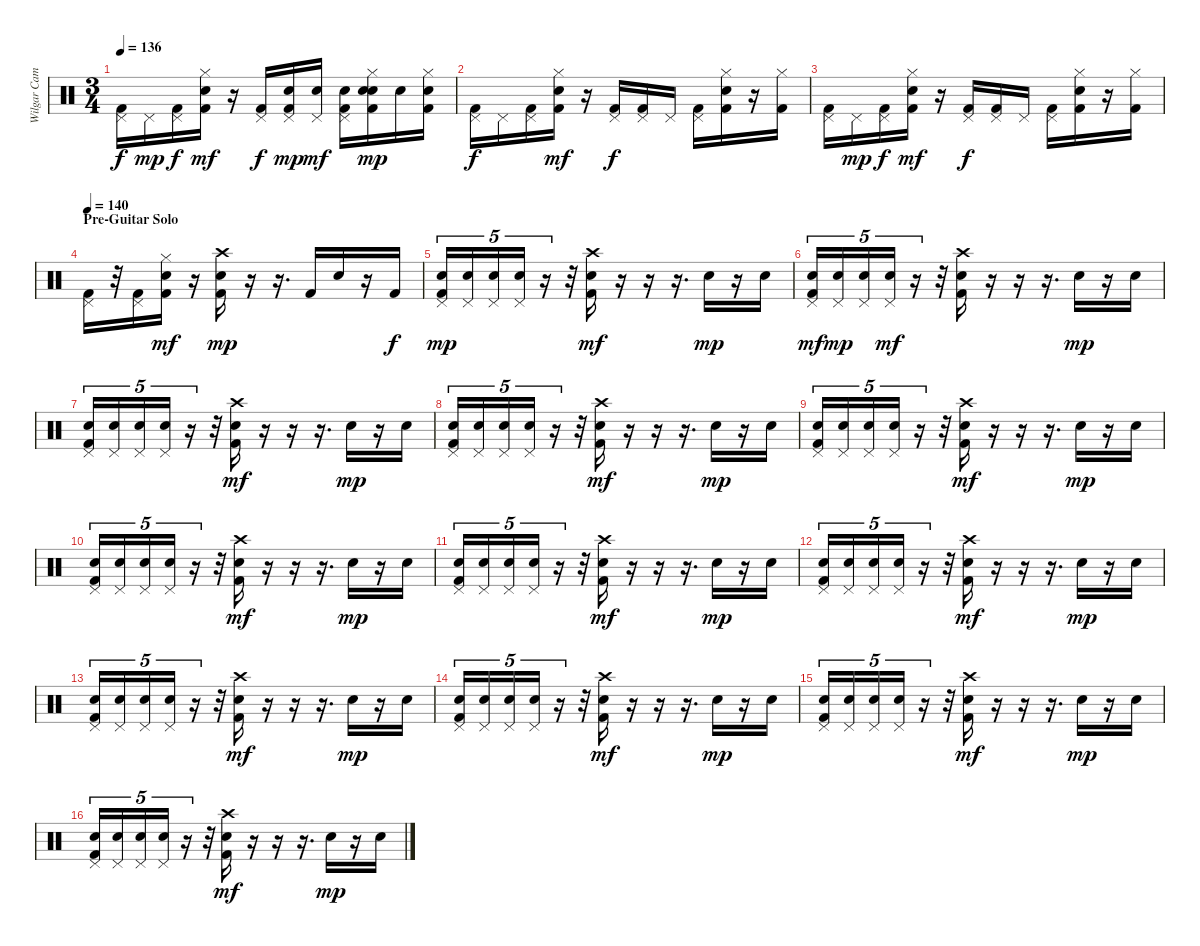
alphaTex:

\track ("Wilgar Campbell" "Wilgar Cam") {instrument percussion}
\staff {score}
\articulation defaults
\ts (3 4)
\tempo 136
\clef neutral
\ks c
("Pedal Hi-Hat (hit)" "Kick (hit) 2").16{dy f} "Pedal Hi-Hat (hit)".16{dy mp} ("Pedal Hi-Hat (hit)" "Kick (hit) 2").16{dy f} ("Snare (hit) 2" "Hi-Hat (closed)" "Kick (hit) 2").16{dy mf} r.16 ("Pedal Hi-Hat (hit)" "Kick (hit) 2").16{dy f} ("Pedal Hi-Hat (hit)" "Snare (hit) 2" "Kick (hit) 2").16{dy mp} ("Pedal Hi-Hat (hit)" "Snare (hit) 2").16{dy mf} ("Pedal Hi-Hat (hit)" "Snare (hit) 2" "Kick (hit) 2").16 ("Snare (hit) 2" "Hi-Hat (closed)" "Snare (hit) 2" "Kick (hit) 2").16{dy mp} "Snare (hit) 2".16 ("Hi-Hat (closed)" "Snare (hit) 2" "Kick (hit) 2").16 |
("Pedal Hi-Hat (hit)" "Kick (hit) 2").16{dy f} "Pedal Hi-Hat (hit)".16 ("Pedal Hi-Hat (hit)" "Kick (hit) 2").16 ("Snare (hit) 2" "Hi-Hat (closed)" "Kick (hit) 2").16{dy mf} r.16 ("Pedal Hi-Hat (hit)" "Kick (hit) 2").16{dy f} ("Pedal Hi-Hat (hit)" "Kick (hit) 2").16 "Pedal Hi-Hat (hit)".16 ("Pedal Hi-Hat (hit)" "Kick (hit) 2").16 ("Snare (hit) 2" "Hi-Hat (closed)" "Kick (hit) 2").16 r.16 ("Hi-Hat (closed)" "Kick (hit) 2").16 |
("Pedal Hi-Hat (hit)" "Kick (hit) 2").16 "Pedal Hi-Hat (hit)".16{dy mp} ("Pedal Hi-Hat (hit)" "Kick (hit) 2").16{dy f} ("Snare (hit) 2" "Hi-Hat (closed)" "Kick (hit) 2").16{dy mf} r.16 ("Pedal Hi-Hat (hit)" "Kick (hit) 2").16{dy f} ("Pedal Hi-Hat (hit)" "Kick (hit) 2").16 "Pedal Hi-Hat (hit)".16 ("Pedal Hi-Hat (hit)" "Kick (hit) 2").16 ("Snare (hit) 2" "Hi-Hat (closed)" "Kick (hit) 2").16 r.16 ("Hi-Hat (closed)" "Kick (hit) 2").16 |
\section ("" "Pre-Guitar Solo")
\tempo 140
("Pedal Hi-Hat (hit)" "Kick (hit) 2").16 r.32 ("Pedal Hi-Hat (hit)" "Kick (hit) 2").16 ("Snare (hit) 2" "Hi-Hat (closed)" "Kick (hit) 2").16{dy mf} r.16 ("Crash high (hit)" "Snare (hit) 2" "Kick (hit) 2").16{dy mp} r.16 r.16{d} "Kick (hit) 2".16 "Electric Snare (hit)".16 r.16 "Kick (hit) 2".16{dy f} |
("Snare (hit) 2" "Pedal Hi-Hat (hit)" "Kick (hit) 2").16{tu (5 4) dy mp} ("Snare (hit) 2" "Pedal Hi-Hat (hit)").16{tu (5 4)} ("Snare (hit) 2" "Pedal Hi-Hat (hit)").16{tu (5 4)} ("Snare (hit) 2" "Pedal Hi-Hat (hit)").16{tu (5 4)} r.16{tu (5 4)} r.32 ("Crash high (hit)" "Snare (hit) 2" "Kick (hit) 2").16{dy mf} r.16 r.16 r.16{d} "Electric Snare (hit)".16{dy mp} r.16 "Electric Snare (hit)".16 |
("Snare (hit) 2" "Pedal Hi-Hat (hit)" "Kick (hit) 2").16{tu (5 4) dy mf} ("Snare (hit) 2" "Pedal Hi-Hat (hit)").16{tu (5 4) dy mp} ("Snare (hit) 2" "Pedal Hi-Hat (hit)").16{tu (5 4)} ("Snare (hit) 2" "Pedal Hi-Hat (hit)").16{tu (5 4) dy mf} r.16{tu (5 4)} r.32 ("Crash high (hit)" "Snare (hit) 2" "Kick (hit) 2").16 r.16 r.16 r.16{d} "Electric Snare (hit)".16{dy mp} r.16 "Electric Snare (hit)".16 |
("Snare (hit) 2" "Pedal Hi-Hat (hit)" "Kick (hit) 2").16{tu (5 4)} ("Snare (hit) 2" "Pedal Hi-Hat (hit)").16{tu (5 4)} ("Snare (hit) 2" "Pedal Hi-Hat (hit)").16{tu (5 4)} ("Snare (hit) 2" "Pedal Hi-Hat (hit)").16{tu (5 4)} r.16{tu (5 4)} r.32 ("Crash high (hit)" "Snare (hit) 2" "Kick (hit) 2").16{dy mf} r.16 r.16 r.16{d} "Electric Snare (hit)".16{dy mp} r.16 "Electric Snare (hit)".16 |
("Snare (hit) 2" "Pedal Hi-Hat (hit)" "Kick (hit) 2").16{tu (5 4)} ("Snare (hit) 2" "Pedal Hi-Hat (hit)").16{tu (5 4)} ("Snare (hit) 2" "Pedal Hi-Hat (hit)").16{tu (5 4)} ("Snare (hit) 2" "Pedal Hi-Hat (hit)").16{tu (5 4)} r.16{tu (5 4)} r.32 ("Crash high (hit)" "Snare (hit) 2" "Kick (hit) 2").16{dy mf} r.16 r.16 r.16{d} "Electric Snare (hit)".16{dy mp} r.16 "Electric Snare (hit)".16 |
("Snare (hit) 2" "Pedal Hi-Hat (hit)" "Kick (hit) 2").16{tu (5 4)} ("Snare (hit) 2" "Pedal Hi-Hat (hit)").16{tu (5 4)} ("Snare (hit) 2" "Pedal Hi-Hat (hit)").16{tu (5 4)} ("Snare (hit) 2" "Pedal Hi-Hat (hit)").16{tu (5 4)} r.16{tu (5 4)} r.32 ("Crash high (hit)" "Snare (hit) 2" "Kick (hit) 2").16{dy mf} r.16 r.16 r.16{d} "Electric Snare (hit)".16{dy mp} r.16 "Electric Snare (hit)".16 |
("Snare (hit) 2" "Pedal Hi-Hat (hit)" "Kick (hit) 2").16{tu (5 4)} ("Snare (hit) 2" "Pedal Hi-Hat (hit)").16{tu (5 4)} ("Snare (hit) 2" "Pedal Hi-Hat (hit)").16{tu (5 4)} ("Snare (hit) 2" "Pedal Hi-Hat (hit)").16{tu (5 4)} r.16{tu (5 4)} r.32 ("Crash high (hit)" "Snare (hit) 2" "Kick (hit) 2").16{dy mf} r.16 r.16 r.16{d} "Electric Snare (hit)".16{dy mp} r.16 "Electric Snare (hit)".16 |
("Snare (hit) 2" "Pedal Hi-Hat (hit)" "Kick (hit) 2").16{tu (5 4)} ("Snare (hit) 2" "Pedal Hi-Hat (hit)").16{tu (5 4)} ("Snare (hit) 2" "Pedal Hi-Hat (hit)").16{tu (5 4)} ("Snare (hit) 2" "Pedal Hi-Hat (hit)").16{tu (5 4)} r.16{tu (5 4)} r.32 ("Crash high (hit)" "Snare (hit) 2" "Kick (hit) 2").16{dy mf} r.16 r.16 r.16{d} "Electric Snare (hit)".16{dy mp} r.16 "Electric Snare (hit)".16 |
("Snare (hit) 2" "Pedal Hi-Hat (hit)" "Kick (hit) 2").16{tu (5 4)} ("Snare (hit) 2" "Pedal Hi-Hat (hit)").16{tu (5 4)} ("Snare (hit) 2" "Pedal Hi-Hat (hit)").16{tu (5 4)} ("Snare (hit) 2" "Pedal Hi-Hat (hit)").16{tu (5 4)} r.16{tu (5 4)} r.32 ("Crash high (hit)" "Snare (hit) 2" "Kick (hit) 2").16{dy mf} r.16 r.16 r.16{d} "Electric Snare (hit)".16{dy mp} r.16 "Electric Snare (hit)".16 |
("Snare (hit) 2" "Pedal Hi-Hat (hit)" "Kick (hit) 2").16{tu (5 4)} ("Snare (hit) 2" "Pedal Hi-Hat (hit)").16{tu (5 4)} ("Snare (hit) 2" "Pedal Hi-Hat (hit)").16{tu (5 4)} ("Snare (hit) 2" "Pedal Hi-Hat (hit)").16{tu (5 4)} r.16{tu (5 4)} r.32 ("Crash high (hit)" "Snare (hit) 2" "Kick (hit) 2").16{dy mf} r.16 r.16 r.16{d} "Electric Snare (hit)".16{dy mp} r.16 "Electric Snare (hit)".16 |
("Snare (hit) 2" "Pedal Hi-Hat (hit)" "Kick (hit) 2").16{tu (5 4)} ("Snare (hit) 2" "Pedal Hi-Hat (hit)").16{tu (5 4)} ("Snare (hit) 2" "Pedal Hi-Hat (hit)").16{tu (5 4)} ("Snare (hit) 2" "Pedal Hi-Hat (hit)").16{tu (5 4)} r.16{tu (5 4)} r.32 ("Crash high (hit)" "Snare (hit) 2" "Kick (hit) 2").16{dy mf} r.16 r.16 r.16{d} "Electric Snare (hit)".16{dy mp} r.16 "Electric Snare (hit)".16 |
("Snare (hit) 2" "Pedal Hi-Hat (hit)" "Kick (hit) 2").16{tu (5 4)} ("Snare (hit) 2" "Pedal Hi-Hat (hit)").16{tu (5 4)} ("Snare (hit) 2" "Pedal Hi-Hat (hit)").16{tu (5 4)} ("Snare (hit) 2" "Pedal Hi-Hat (hit)").16{tu (5 4)} r.16{tu (5 4)} r.32 ("Crash high (hit)" "Snare (hit) 2" "Kick (hit) 2").16{dy mf} r.16 r.16 r.16{d} "Electric Snare (hit)".16{dy mp} r.16 "Electric Snare (hit)".16 |
("Snare (hit) 2" "Pedal Hi-Hat (hit)" "Kick (hit) 2").16{tu (5 4)} ("Snare (hit) 2" "Pedal Hi-Hat (hit)").16{tu (5 4)} ("Snare (hit) 2" "Pedal Hi-Hat (hit)").16{tu (5 4)} ("Snare (hit) 2" "Pedal Hi-Hat (hit)").16{tu (5 4)} r.16{tu (5 4)} r.32 ("Crash high (hit)" "Snare (hit) 2" "Kick (hit) 2").16{dy mf} r.16 r.16 r.16{d} "Electric Snare (hit)".16{dy mp} r.16 "Electric Snare (hit)".16
